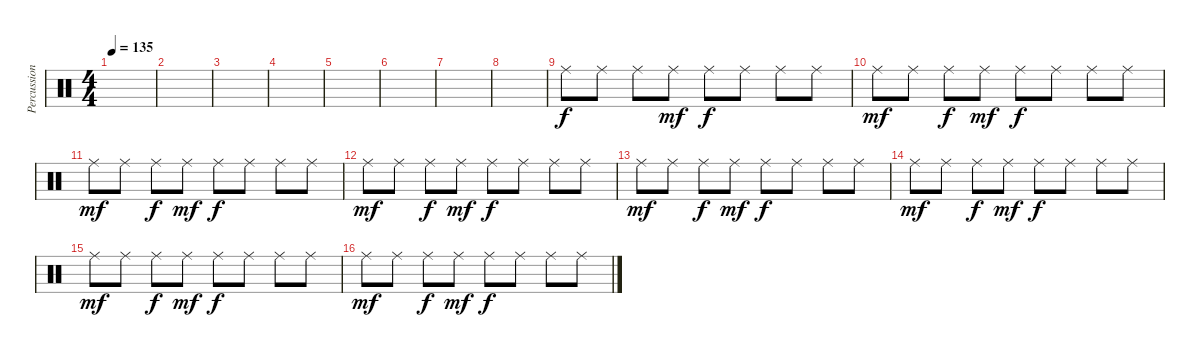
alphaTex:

\track ("Percussion" "Percussion") {instrument percussion}
\staff {score}
\articulation defaults
\ts (4 4)
\tempo 135
\clef neutral
\ks c
|
|
|
|
|
|
|
|
"Ride (middle)".8 "Ride (middle)".8 "Ride (middle)".8{dy f} "Ride (middle)".8{dy mf} "Ride (middle)".8{dy f} "Ride (middle)".8 "Ride (middle)".8 "Ride (middle)".8 |
"Ride (middle)".8{dy mf} "Ride (middle)".8 "Ride (middle)".8{dy f} "Ride (middle)".8{dy mf} "Ride (middle)".8{dy f} "Ride (middle)".8 "Ride (middle)".8 "Ride (middle)".8 |
"Ride (middle)".8{dy mf} "Ride (middle)".8 "Ride (middle)".8{dy f} "Ride (middle)".8{dy mf} "Ride (middle)".8{dy f} "Ride (middle)".8 "Ride (middle)".8 "Ride (middle)".8 |
"Ride (middle)".8{dy mf} "Ride (middle)".8 "Ride (middle)".8{dy f} "Ride (middle)".8{dy mf} "Ride (middle)".8{dy f} "Ride (middle)".8 "Ride (middle)".8 "Ride (middle)".8 |
"Ride (middle)".8{dy mf} "Ride (middle)".8 "Ride (middle)".8{dy f} "Ride (middle)".8{dy mf} "Ride (middle)".8{dy f} "Ride (middle)".8 "Ride (middle)".8 "Ride (middle)".8 |
"Ride (middle)".8{dy mf} "Ride (middle)".8 "Ride (middle)".8{dy f} "Ride (middle)".8{dy mf} "Ride (middle)".8{dy f} "Ride (middle)".8 "Ride (middle)".8 "Ride (middle)".8 |
"Ride (middle)".8{dy mf} "Ride (middle)".8 "Ride (middle)".8{dy f} "Ride (middle)".8{dy mf} "Ride (middle)".8{dy f} "Ride (middle)".8 "Ride (middle)".8 "Ride (middle)".8 |
"Ride (middle)".8{dy mf} "Ride (middle)".8 "Ride (middle)".8{dy f} "Ride (middle)".8{dy mf} "Ride (middle)".8{dy f} "Ride (middle)".8 "Ride (middle)".8 "Ride (middle)".8
